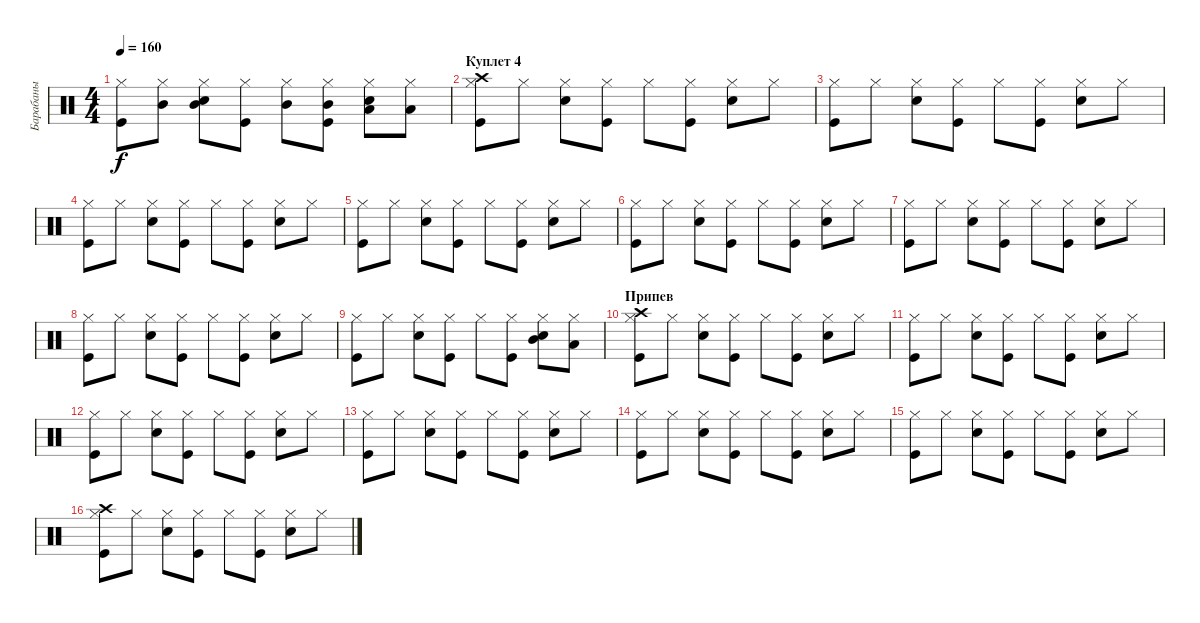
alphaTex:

\track ("Барабаны" "Барабаны") {instrument percussion}
\staff {score}
\articulation defaults
\ts (4 4)
\tempo 160
\clef neutral
\ks c
("Kick (hit)" "Hi-Hat (closed)").8{dy f} ("Mid Tom (hit)" "Hi-Hat (closed)").8 ("Snare (hit) 2" "Mid Tom (hit)" "Hi-Hat (closed)").8 ("Kick (hit)" "Hi-Hat (closed)").8 ("Mid Tom (hit)" "Hi-Hat (closed)").8 ("Kick (hit)" "Mid Tom (hit)" "Hi-Hat (closed)").8 ("Snare (hit) 2" "Low Tom (hit)" "Hi-Hat (closed)").8 ("Low Tom (hit)" "Hi-Hat (closed)").8 |
\section ("" "Куплет 4")
("Kick (hit)" "Crash high (hit)" "Hi-Hat (closed)").8 "Hi-Hat (closed)".8 ("Snare (hit) 2" "Hi-Hat (closed)").8 ("Kick (hit)" "Hi-Hat (closed)").8 "Hi-Hat (closed)".8 ("Kick (hit)" "Hi-Hat (closed)").8 ("Snare (hit) 2" "Hi-Hat (closed)").8 "Hi-Hat (closed)".8 |
("Kick (hit)" "Hi-Hat (closed)").8 "Hi-Hat (closed)".8 ("Snare (hit) 2" "Hi-Hat (closed)").8 ("Kick (hit)" "Hi-Hat (closed)").8 "Hi-Hat (closed)".8 ("Kick (hit)" "Hi-Hat (closed)").8 ("Snare (hit) 2" "Hi-Hat (closed)").8 "Hi-Hat (closed)".8 |
("Kick (hit)" "Hi-Hat (closed)").8 "Hi-Hat (closed)".8 ("Snare (hit) 2" "Hi-Hat (closed)").8 ("Kick (hit)" "Hi-Hat (closed)").8 "Hi-Hat (closed)".8 ("Kick (hit)" "Hi-Hat (closed)").8 ("Snare (hit) 2" "Hi-Hat (closed)").8 "Hi-Hat (closed)".8 |
("Kick (hit)" "Hi-Hat (closed)").8 "Hi-Hat (closed)".8 ("Snare (hit) 2" "Hi-Hat (closed)").8 ("Kick (hit)" "Hi-Hat (closed)").8 "Hi-Hat (closed)".8 ("Kick (hit)" "Hi-Hat (closed)").8 ("Snare (hit) 2" "Hi-Hat (closed)").8 "Hi-Hat (closed)".8 |
("Kick (hit)" "Hi-Hat (closed)").8 "Hi-Hat (closed)".8 ("Snare (hit) 2" "Hi-Hat (closed)").8 ("Kick (hit)" "Hi-Hat (closed)").8 "Hi-Hat (closed)".8 ("Kick (hit)" "Hi-Hat (closed)").8 ("Snare (hit) 2" "Hi-Hat (closed)").8 "Hi-Hat (closed)".8 |
("Kick (hit)" "Hi-Hat (closed)").8 "Hi-Hat (closed)".8 ("Snare (hit) 2" "Hi-Hat (closed)").8 ("Kick (hit)" "Hi-Hat (closed)").8 "Hi-Hat (closed)".8 ("Kick (hit)" "Hi-Hat (closed)").8 ("Snare (hit) 2" "Hi-Hat (closed)").8 "Hi-Hat (closed)".8 |
("Kick (hit)" "Hi-Hat (closed)").8 "Hi-Hat (closed)".8 ("Snare (hit) 2" "Hi-Hat (closed)").8 ("Kick (hit)" "Hi-Hat (closed)").8 "Hi-Hat (closed)".8 ("Kick (hit)" "Hi-Hat (closed)").8 ("Snare (hit) 2" "Hi-Hat (closed)").8 "Hi-Hat (closed)".8 |
("Kick (hit)" "Hi-Hat (closed)").8 "Hi-Hat (closed)".8 ("Snare (hit) 2" "Hi-Hat (closed)").8 ("Kick (hit)" "Hi-Hat (closed)").8 "Hi-Hat (closed)".8 ("Kick (hit)" "Hi-Hat (closed)").8 ("Snare (hit) 2" "Mid Tom (hit)" "Hi-Hat (closed)").8 ("Low Tom (hit)" "Hi-Hat (closed)").8 |
\section ("" "Припев")
("Kick (hit)" "Crash high (hit)" "Hi-Hat (closed)").8 "Hi-Hat (closed)".8 ("Snare (hit) 2" "Hi-Hat (closed)").8 ("Kick (hit)" "Hi-Hat (closed)").8 "Hi-Hat (closed)".8 ("Kick (hit)" "Hi-Hat (closed)").8 ("Snare (hit) 2" "Hi-Hat (closed)").8 "Hi-Hat (closed)".8 |
("Kick (hit)" "Hi-Hat (closed)").8 "Hi-Hat (closed)".8 ("Snare (hit) 2" "Hi-Hat (closed)").8 ("Kick (hit)" "Hi-Hat (closed)").8 "Hi-Hat (closed)".8 ("Kick (hit)" "Hi-Hat (closed)").8 ("Snare (hit) 2" "Hi-Hat (closed)").8 "Hi-Hat (closed)".8 |
("Kick (hit)" "Hi-Hat (closed)").8 "Hi-Hat (closed)".8 ("Snare (hit) 2" "Hi-Hat (closed)").8 ("Kick (hit)" "Hi-Hat (closed)").8 "Hi-Hat (closed)".8 ("Kick (hit)" "Hi-Hat (closed)").8 ("Snare (hit) 2" "Hi-Hat (closed)").8 "Hi-Hat (closed)".8 |
("Kick (hit)" "Hi-Hat (closed)").8 "Hi-Hat (closed)".8 ("Snare (hit) 2" "Hi-Hat (closed)").8 ("Kick (hit)" "Hi-Hat (closed)").8 "Hi-Hat (closed)".8 ("Kick (hit)" "Hi-Hat (closed)").8 ("Snare (hit) 2" "Hi-Hat (closed)").8 "Hi-Hat (closed)".8 |
("Kick (hit)" "Hi-Hat (closed)").8 "Hi-Hat (closed)".8 ("Snare (hit) 2" "Hi-Hat (closed)").8 ("Kick (hit)" "Hi-Hat (closed)").8 "Hi-Hat (closed)".8 ("Kick (hit)" "Hi-Hat (closed)").8 ("Snare (hit) 2" "Hi-Hat (closed)").8 "Hi-Hat (closed)".8 |
("Kick (hit)" "Hi-Hat (closed)").8 "Hi-Hat (closed)".8 ("Snare (hit) 2" "Hi-Hat (closed)").8 ("Kick (hit)" "Hi-Hat (closed)").8 "Hi-Hat (closed)".8 ("Kick (hit)" "Hi-Hat (closed)").8 ("Snare (hit) 2" "Hi-Hat (closed)").8 "Hi-Hat (closed)".8 |
("Kick (hit)" "Crash high (hit)" "Hi-Hat (closed)").8 "Hi-Hat (closed)".8 ("Snare (hit) 2" "Hi-Hat (closed)").8 ("Kick (hit)" "Hi-Hat (closed)").8 "Hi-Hat (closed)".8 ("Kick (hit)" "Hi-Hat (closed)").8 ("Snare (hit) 2" "Hi-Hat (closed)").8 "Hi-Hat (closed)".8
